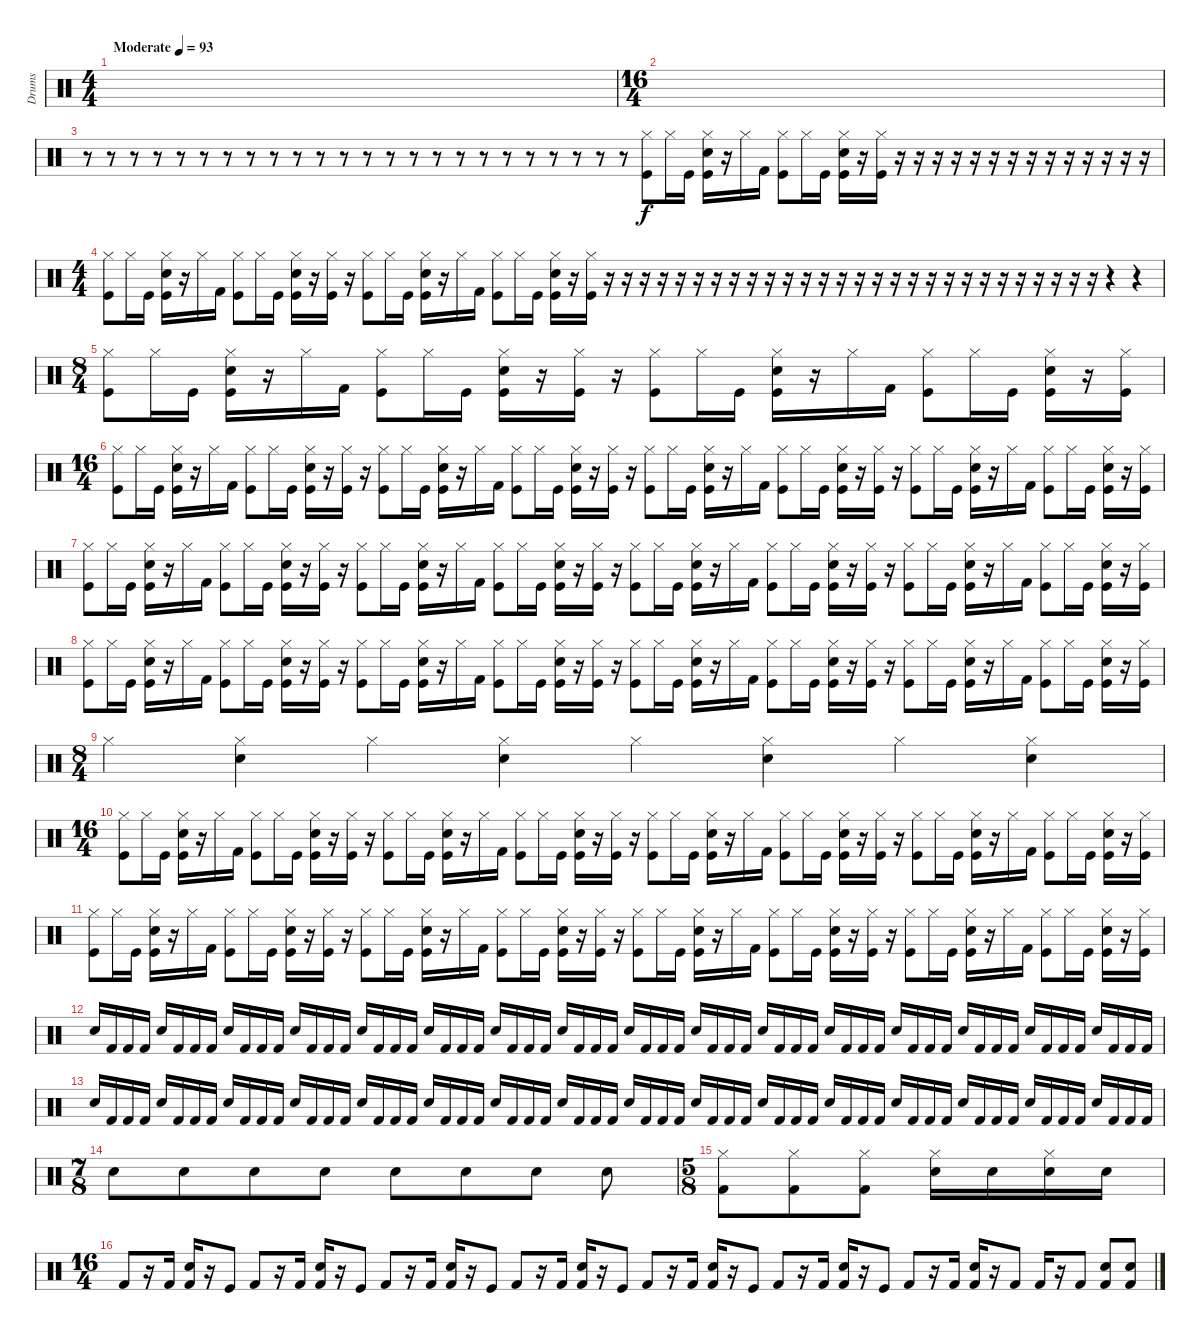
\track ("Drums" "Drums") {solo instrument percussion}
\staff {score}
\articulation defaults
\ts (4 4)
\tempo (93 "Moderate")
\clef neutral
\ks c
|
\ts (16 4)
|
r.8 r.8 r.8 r.8 r.8 r.8 r.8 r.8 r.8 r.8 r.8 r.8 r.8 r.8 r.8 r.8 r.8 r.8 r.8 r.8 r.8 r.8 r.8 r.8 ("Hi-Hat (closed)" "Kick (hit)").8 "Hi-Hat (closed)".16 "Kick (hit)".16 ("Hi-Hat (closed)" "Kick (hit)" "Snare (hit) 2").16 r.16 "Hi-Hat (closed)".16 "Kick (hit) 2".16 ("Hi-Hat (closed)" "Kick (hit)").8 "Hi-Hat (closed)".16 "Kick (hit)".16 ("Hi-Hat (closed)" "Kick (hit)" "Snare (hit) 2").16 r.16 ("Hi-Hat (closed)" "Kick (hit)").16 r.16 r.16 r.16 r.16 r.16 r.16 r.16 r.16 r.16 r.16 r.16 r.16 r.16 r.16 |
\ts (4 4)
("Hi-Hat (closed)" "Kick (hit)").8 "Hi-Hat (closed)".16 "Kick (hit)".16 ("Hi-Hat (closed)" "Kick (hit)" "Snare (hit) 2").16 r.16 "Hi-Hat (closed)".16 "Kick (hit) 2".16 ("Hi-Hat (closed)" "Kick (hit)").8 "Hi-Hat (closed)".16 "Kick (hit)".16 ("Hi-Hat (closed)" "Kick (hit)" "Snare (hit) 2").16 r.16 ("Hi-Hat (closed)" "Kick (hit)").16 r.16 ("Hi-Hat (closed)" "Kick (hit)").8 "Hi-Hat (closed)".16 "Kick (hit)".16 ("Hi-Hat (closed)" "Kick (hit)" "Snare (hit) 2").16 r.16 "Hi-Hat (closed)".16 "Kick (hit) 2".16 ("Hi-Hat (closed)" "Kick (hit)").8 "Hi-Hat (closed)".16 "Kick (hit)".16 ("Hi-Hat (closed)" "Kick (hit)" "Snare (hit) 2").16 r.16 ("Hi-Hat (closed)" "Kick (hit)").16 r.16 r.16 r.16 r.16 r.16 r.16 r.16 r.16 r.16 r.16 r.16 r.16 r.16 r.16 r.16 r.16 r.16 r.16 r.16 r.16 r.16 r.16 r.16 r.16 r.16 r.16 r.16 r.16 r.4 r.4 |
\ts (8 4)
("Hi-Hat (closed)" "Kick (hit)").8 "Hi-Hat (closed)".16 "Kick (hit)".16 ("Hi-Hat (closed)" "Kick (hit)" "Snare (hit) 2").16 r.16 "Hi-Hat (closed)".16 "Kick (hit) 2".16 ("Hi-Hat (closed)" "Kick (hit)").8 "Hi-Hat (closed)".16 "Kick (hit)".16 ("Hi-Hat (closed)" "Kick (hit)" "Snare (hit) 2").16 r.16 ("Hi-Hat (closed)" "Kick (hit)").16 r.16 ("Hi-Hat (closed)" "Kick (hit)").8 "Hi-Hat (closed)".16 "Kick (hit)".16 ("Hi-Hat (closed)" "Kick (hit)" "Snare (hit) 2").16 r.16 "Hi-Hat (closed)".16 "Kick (hit) 2".16 ("Hi-Hat (closed)" "Kick (hit)").8 "Hi-Hat (closed)".16 "Kick (hit)".16 ("Hi-Hat (closed)" "Kick (hit)" "Snare (hit) 2").16 r.16 ("Hi-Hat (closed)" "Kick (hit)").16 |
\ts (16 4)
("Hi-Hat (closed)" "Kick (hit)").8 "Hi-Hat (closed)".16 "Kick (hit)".16 ("Hi-Hat (closed)" "Kick (hit)" "Snare (hit) 2").16 r.16 "Hi-Hat (closed)".16 "Kick (hit) 2".16 ("Hi-Hat (closed)" "Kick (hit)").8 "Hi-Hat (closed)".16 "Kick (hit)".16 ("Hi-Hat (closed)" "Kick (hit)" "Snare (hit) 2").16 r.16 ("Hi-Hat (closed)" "Kick (hit)").16 r.16 ("Hi-Hat (closed)" "Kick (hit)").8 "Hi-Hat (closed)".16 "Kick (hit)".16 ("Hi-Hat (closed)" "Kick (hit)" "Snare (hit) 2").16 r.16 "Hi-Hat (closed)".16 "Kick (hit) 2".16 ("Hi-Hat (closed)" "Kick (hit)").8 "Hi-Hat (closed)".16 "Kick (hit)".16 ("Hi-Hat (closed)" "Kick (hit)" "Snare (hit) 2").16 r.16 ("Hi-Hat (closed)" "Kick (hit)").16 r.16 ("Hi-Hat (closed)" "Kick (hit)").8 "Hi-Hat (closed)".16 "Kick (hit)".16 ("Hi-Hat (closed)" "Kick (hit)" "Snare (hit) 2").16 r.16 "Hi-Hat (closed)".16 "Kick (hit) 2".16 ("Hi-Hat (closed)" "Kick (hit)").8 "Hi-Hat (closed)".16 "Kick (hit)".16 ("Hi-Hat (closed)" "Kick (hit)" "Snare (hit) 2").16 r.16 ("Hi-Hat (closed)" "Kick (hit)").16 r.16 ("Hi-Hat (closed)" "Kick (hit)").8 "Hi-Hat (closed)".16 "Kick (hit)".16 ("Hi-Hat (closed)" "Kick (hit)" "Snare (hit) 2").16 r.16 "Hi-Hat (closed)".16 "Kick (hit) 2".16 ("Hi-Hat (closed)" "Kick (hit)").8 "Hi-Hat (closed)".16 "Kick (hit)".16 ("Hi-Hat (closed)" "Kick (hit)" "Snare (hit) 2").16 r.16 ("Hi-Hat (closed)" "Kick (hit)").16 |
("Hi-Hat (closed)" "Kick (hit)").8 "Hi-Hat (closed)".16 "Kick (hit)".16 ("Hi-Hat (closed)" "Kick (hit)" "Snare (hit) 2").16 r.16 "Hi-Hat (closed)".16 "Kick (hit) 2".16 ("Hi-Hat (closed)" "Kick (hit)").8 "Hi-Hat (closed)".16 "Kick (hit)".16 ("Hi-Hat (closed)" "Kick (hit)" "Snare (hit) 2").16 r.16 ("Hi-Hat (closed)" "Kick (hit)").16 r.16 ("Hi-Hat (closed)" "Kick (hit)").8 "Hi-Hat (closed)".16 "Kick (hit)".16 ("Hi-Hat (closed)" "Kick (hit)" "Snare (hit) 2").16 r.16 "Hi-Hat (closed)".16 "Kick (hit) 2".16 ("Hi-Hat (closed)" "Kick (hit)").8 "Hi-Hat (closed)".16 "Kick (hit)".16 ("Hi-Hat (closed)" "Kick (hit)" "Snare (hit) 2").16 r.16 ("Hi-Hat (closed)" "Kick (hit)").16 r.16 ("Hi-Hat (closed)" "Kick (hit)").8 "Hi-Hat (closed)".16 "Kick (hit)".16 ("Hi-Hat (closed)" "Kick (hit)" "Snare (hit) 2").16 r.16 "Hi-Hat (closed)".16 "Kick (hit) 2".16 ("Hi-Hat (closed)" "Kick (hit)").8 "Hi-Hat (closed)".16 "Kick (hit)".16 ("Hi-Hat (closed)" "Kick (hit)" "Snare (hit) 2").16 r.16 ("Hi-Hat (closed)" "Kick (hit)").16 r.16 ("Hi-Hat (closed)" "Kick (hit)").8 "Hi-Hat (closed)".16 "Kick (hit)".16 ("Hi-Hat (closed)" "Kick (hit)" "Snare (hit) 2").16 r.16 "Hi-Hat (closed)".16 "Kick (hit) 2".16 ("Hi-Hat (closed)" "Kick (hit)").8 "Hi-Hat (closed)".16 "Kick (hit)".16 ("Hi-Hat (closed)" "Kick (hit)" "Snare (hit) 2").16 r.16 ("Hi-Hat (closed)" "Kick (hit)").16 |
("Hi-Hat (closed)" "Kick (hit)").8 "Hi-Hat (closed)".16 "Kick (hit)".16 ("Hi-Hat (closed)" "Kick (hit)" "Snare (hit) 2").16 r.16 "Hi-Hat (closed)".16 "Kick (hit) 2".16 ("Hi-Hat (closed)" "Kick (hit)").8 "Hi-Hat (closed)".16 "Kick (hit)".16 ("Hi-Hat (closed)" "Kick (hit)" "Snare (hit) 2").16 r.16 ("Hi-Hat (closed)" "Kick (hit)").16 r.16 ("Hi-Hat (closed)" "Kick (hit)").8 "Hi-Hat (closed)".16 "Kick (hit)".16 ("Hi-Hat (closed)" "Kick (hit)" "Snare (hit) 2").16 r.16 "Hi-Hat (closed)".16 "Kick (hit) 2".16 ("Hi-Hat (closed)" "Kick (hit)").8 "Hi-Hat (closed)".16 "Kick (hit)".16 ("Hi-Hat (closed)" "Kick (hit)" "Snare (hit) 2").16 r.16 ("Hi-Hat (closed)" "Kick (hit)").16 r.16 ("Hi-Hat (closed)" "Kick (hit)").8 "Hi-Hat (closed)".16 "Kick (hit)".16 ("Hi-Hat (closed)" "Kick (hit)" "Snare (hit) 2").16 r.16 "Hi-Hat (closed)".16 "Kick (hit) 2".16 ("Hi-Hat (closed)" "Kick (hit)").8 "Hi-Hat (closed)".16 "Kick (hit)".16 ("Hi-Hat (closed)" "Kick (hit)" "Snare (hit) 2").16 r.16 ("Hi-Hat (closed)" "Kick (hit)").16 r.16 ("Hi-Hat (closed)" "Kick (hit)").8 "Hi-Hat (closed)".16 "Kick (hit)".16 ("Hi-Hat (closed)" "Kick (hit)" "Snare (hit) 2").16 r.16 "Hi-Hat (closed)".16 "Kick (hit) 2".16 ("Hi-Hat (closed)" "Kick (hit)").8 "Hi-Hat (closed)".16 "Kick (hit)".16 ("Hi-Hat (closed)" "Kick (hit)" "Snare (hit) 2").16 r.16 ("Hi-Hat (closed)" "Kick (hit)").16 |
\ts (8 4)
"Hi-Hat (closed)".4 ("Hi-Hat (closed)" "Snare (hit) 2").4 "Hi-Hat (closed)".4 ("Hi-Hat (closed)" "Snare (hit) 2").4 "Hi-Hat (closed)".4 ("Hi-Hat (closed)" "Snare (hit) 2").4 "Hi-Hat (closed)".4 ("Hi-Hat (closed)" "Snare (hit) 2").4 |
\ts (16 4)
("Hi-Hat (closed)" "Kick (hit)").8 "Hi-Hat (closed)".16 "Kick (hit)".16 ("Hi-Hat (closed)" "Kick (hit)" "Snare (hit) 2").16 r.16 "Hi-Hat (closed)".16 "Kick (hit) 2".16 ("Hi-Hat (closed)" "Kick (hit)").8 "Hi-Hat (closed)".16 "Kick (hit)".16 ("Hi-Hat (closed)" "Kick (hit)" "Snare (hit) 2").16 r.16 ("Hi-Hat (closed)" "Kick (hit)").16 r.16 ("Hi-Hat (closed)" "Kick (hit)").8 "Hi-Hat (closed)".16 "Kick (hit)".16 ("Hi-Hat (closed)" "Kick (hit)" "Snare (hit) 2").16 r.16 "Hi-Hat (closed)".16 "Kick (hit) 2".16 ("Hi-Hat (closed)" "Kick (hit)").8 "Hi-Hat (closed)".16 "Kick (hit)".16 ("Hi-Hat (closed)" "Kick (hit)" "Snare (hit) 2").16 r.16 ("Hi-Hat (closed)" "Kick (hit)").16 r.16 ("Hi-Hat (closed)" "Kick (hit)").8 "Hi-Hat (closed)".16 "Kick (hit)".16 ("Hi-Hat (closed)" "Kick (hit)" "Snare (hit) 2").16 r.16 "Hi-Hat (closed)".16 "Kick (hit) 2".16 ("Hi-Hat (closed)" "Kick (hit)").8 "Hi-Hat (closed)".16 "Kick (hit)".16 ("Hi-Hat (closed)" "Kick (hit)" "Snare (hit) 2").16 r.16 ("Hi-Hat (closed)" "Kick (hit)").16 r.16 ("Hi-Hat (closed)" "Kick (hit)").8 "Hi-Hat (closed)".16 "Kick (hit)".16 ("Hi-Hat (closed)" "Kick (hit)" "Snare (hit) 2").16 r.16 "Hi-Hat (closed)".16 "Kick (hit) 2".16 ("Hi-Hat (closed)" "Kick (hit)").8 "Hi-Hat (closed)".16 "Kick (hit)".16 ("Hi-Hat (closed)" "Kick (hit)" "Snare (hit) 2").16 r.16 ("Hi-Hat (closed)" "Kick (hit)").16 |
("Hi-Hat (closed)" "Kick (hit)").8 "Hi-Hat (closed)".16 "Kick (hit)".16 ("Hi-Hat (closed)" "Kick (hit)" "Snare (hit) 2").16 r.16 "Hi-Hat (closed)".16 "Kick (hit) 2".16 ("Hi-Hat (closed)" "Kick (hit)").8 "Hi-Hat (closed)".16 "Kick (hit)".16 ("Hi-Hat (closed)" "Kick (hit)" "Snare (hit) 2").16 r.16 ("Hi-Hat (closed)" "Kick (hit)").16 r.16 ("Hi-Hat (closed)" "Kick (hit)").8 "Hi-Hat (closed)".16 "Kick (hit)".16 ("Hi-Hat (closed)" "Kick (hit)" "Snare (hit) 2").16 r.16 "Hi-Hat (closed)".16 "Kick (hit) 2".16 ("Hi-Hat (closed)" "Kick (hit)").8 "Hi-Hat (closed)".16 "Kick (hit)".16 ("Hi-Hat (closed)" "Kick (hit)" "Snare (hit) 2").16 r.16 ("Hi-Hat (closed)" "Kick (hit)").16 r.16 ("Hi-Hat (closed)" "Kick (hit)").8 "Hi-Hat (closed)".16 "Kick (hit)".16 ("Hi-Hat (closed)" "Kick (hit)" "Snare (hit) 2").16 r.16 "Hi-Hat (closed)".16 "Kick (hit) 2".16 ("Hi-Hat (closed)" "Kick (hit)").8 "Hi-Hat (closed)".16 "Kick (hit)".16 ("Hi-Hat (closed)" "Kick (hit)" "Snare (hit) 2").16 r.16 ("Hi-Hat (closed)" "Kick (hit)").16 r.16 ("Hi-Hat (closed)" "Kick (hit)").8 "Hi-Hat (closed)".16 "Kick (hit)".16 ("Hi-Hat (closed)" "Kick (hit)" "Snare (hit) 2").16 r.16 "Hi-Hat (closed)".16 "Kick (hit) 2".16 ("Hi-Hat (closed)" "Kick (hit)").8 "Hi-Hat (closed)".16 "Kick (hit)".16 ("Hi-Hat (closed)" "Kick (hit)" "Snare (hit) 2").16 r.16 ("Hi-Hat (closed)" "Kick (hit)").16 |
"Snare (hit) 2".16 "Kick (hit) 2".16 "Kick (hit) 2".16 "Kick (hit) 2".16 "Snare (hit) 2".16 "Kick (hit) 2".16 "Kick (hit) 2".16 "Kick (hit) 2".16 "Snare (hit) 2".16 "Kick (hit) 2".16 "Kick (hit) 2".16 "Kick (hit) 2".16 "Snare (hit) 2".16 "Kick (hit) 2".16 "Kick (hit) 2".16 "Kick (hit) 2".16 "Snare (hit) 2".16 "Kick (hit) 2".16 "Kick (hit) 2".16 "Kick (hit) 2".16 "Snare (hit) 2".16 "Kick (hit) 2".16 "Kick (hit) 2".16 "Kick (hit) 2".16 "Snare (hit) 2".16 "Kick (hit) 2".16 "Kick (hit) 2".16 "Kick (hit) 2".16 "Snare (hit) 2".16 "Kick (hit) 2".16 "Kick (hit) 2".16 "Kick (hit) 2".16 "Snare (hit) 2".16 "Kick (hit) 2".16 "Kick (hit) 2".16 "Kick (hit) 2".16 "Snare (hit) 2".16 "Kick (hit) 2".16 "Kick (hit) 2".16 "Kick (hit) 2".16 "Snare (hit) 2".16 "Kick (hit) 2".16 "Kick (hit) 2".16 "Kick (hit) 2".16 "Snare (hit) 2".16 "Kick (hit) 2".16 "Kick (hit) 2".16 "Kick (hit) 2".16 "Snare (hit) 2".16 "Kick (hit) 2".16 "Kick (hit) 2".16 "Kick (hit) 2".16 "Snare (hit) 2".16 "Kick (hit) 2".16 "Kick (hit) 2".16 "Kick (hit) 2".16 "Snare (hit) 2".16 "Kick (hit) 2".16 "Kick (hit) 2".16 "Kick (hit) 2".16 "Snare (hit) 2".16 "Kick (hit) 2".16 "Kick (hit) 2".16 "Kick (hit) 2".16 |
"Snare (hit) 2".16 "Kick (hit) 2".16 "Kick (hit) 2".16 "Kick (hit) 2".16 "Snare (hit) 2".16 "Kick (hit) 2".16 "Kick (hit) 2".16 "Kick (hit) 2".16 "Snare (hit) 2".16 "Kick (hit) 2".16 "Kick (hit) 2".16 "Kick (hit) 2".16 "Snare (hit) 2".16 "Kick (hit) 2".16 "Kick (hit) 2".16 "Kick (hit) 2".16 "Snare (hit) 2".16 "Kick (hit) 2".16 "Kick (hit) 2".16 "Kick (hit) 2".16 "Snare (hit) 2".16 "Kick (hit) 2".16 "Kick (hit) 2".16 "Kick (hit) 2".16 "Snare (hit) 2".16 "Kick (hit) 2".16 "Kick (hit) 2".16 "Kick (hit) 2".16 "Snare (hit) 2".16 "Kick (hit) 2".16 "Kick (hit) 2".16 "Kick (hit) 2".16 "Snare (hit) 2".16 "Kick (hit) 2".16 "Kick (hit) 2".16 "Kick (hit) 2".16 "Snare (hit) 2".16 "Kick (hit) 2".16 "Kick (hit) 2".16 "Kick (hit) 2".16 "Snare (hit) 2".16 "Kick (hit) 2".16 "Kick (hit) 2".16 "Kick (hit) 2".16 "Snare (hit) 2".16 "Kick (hit) 2".16 "Kick (hit) 2".16 "Kick (hit) 2".16 "Snare (hit) 2".16 "Kick (hit) 2".16 "Kick (hit) 2".16 "Kick (hit) 2".16 "Snare (hit) 2".16 "Kick (hit) 2".16 "Kick (hit) 2".16 "Kick (hit) 2".16 "Snare (hit) 2".16 "Kick (hit) 2".16 "Kick (hit) 2".16 "Kick (hit) 2".16 "Snare (hit) 2".16 "Kick (hit) 2".16 "Kick (hit) 2".16 "Kick (hit) 2".16 |
\ts (7 8)
"Snare (hit) 2".8 "Snare (hit) 2".8 "Snare (hit) 2".8 "Snare (hit) 2".8 "Snare (hit) 2".8 "Snare (hit) 2".8 "Snare (hit) 2".8 "Snare (hit) 2".8 |
\ts (5 8)
("Hi-Hat (closed)" "Kick (hit) 2").8 ("Hi-Hat (closed)" "Kick (hit) 2").8 ("Hi-Hat (closed)" "Kick (hit) 2").8 ("Hi-Hat (closed)" "Snare (hit) 2").16 "Snare (hit) 2".16 ("Hi-Hat (closed)" "Snare (hit) 2").16 "Snare (hit) 2".16 |
\ts (16 4)
"Kick (hit) 2".8 r.16 "Kick (hit) 2".16 ("Kick (hit) 2" "Snare (hit) 2").16 r.16 "Kick (hit)".8 "Kick (hit) 2".8 r.16 "Kick (hit) 2".16 ("Kick (hit) 2" "Snare (hit) 2").16 r.16 "Kick (hit)".8 "Kick (hit) 2".8 r.16 "Kick (hit) 2".16 ("Kick (hit) 2" "Snare (hit) 2").16 r.16 "Kick (hit)".8 "Kick (hit) 2".8 r.16 "Kick (hit) 2".16 ("Kick (hit) 2" "Snare (hit) 2").16 r.16 "Kick (hit)".8 "Kick (hit) 2".8 r.16 "Kick (hit) 2".16 ("Kick (hit) 2" "Snare (hit) 2").16 r.16 "Kick (hit)".8 "Kick (hit) 2".8 r.16 "Kick (hit) 2".16 ("Kick (hit) 2" "Snare (hit) 2").16 r.16 "Kick (hit)".8 "Kick (hit) 2".8 r.16 "Kick (hit) 2".16 ("Kick (hit) 2" "Snare (hit) 2").16 r.16 "Kick (hit) 2".8 "Kick (hit) 2".16 r.16 "Kick (hit) 2".8 ("Kick (hit) 2" "Snare (hit) 2").8 ("Kick (hit) 2" "Snare (hit) 2").8
